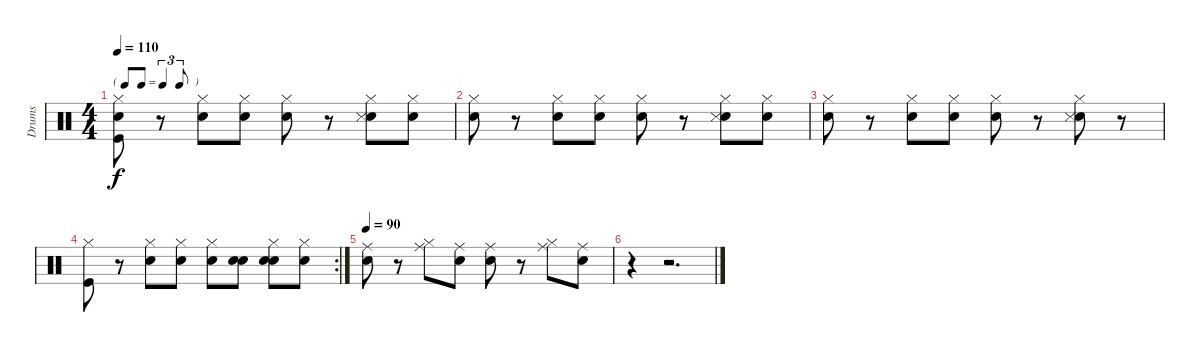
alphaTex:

\track ("Drums " "Drums ") {instrument percussion}
\staff {score}
\articulation defaults
\ts (4 4)
\tf triplet8th
\tempo 110
\clef neutral
\ks c
("Snare (hit)" "Kick (hit)" "Hi-Hat (closed)").8{dy f} r.8 ("Snare (hit) 2" "Hi-Hat (closed)").8 ("Snare (hit)" "Hi-Hat (closed)").8 ("Snare (hit)" "Hi-Hat (closed)").8 r.8 ("Snare (hit) 2" "Hi-Hat (closed)" "Snare (side stick) 3").8 ("Snare (hit)" "Hi-Hat (closed)").8 |
("Snare (hit)" "Hi-Hat (closed)").8 r.8 ("Snare (hit) 2" "Hi-Hat (closed)").8 ("Snare (hit)" "Hi-Hat (closed)").8 ("Snare (hit)" "Hi-Hat (closed)").8 r.8 ("Snare (hit) 2" "Hi-Hat (closed)" "Snare (side stick) 3").8 ("Snare (hit)" "Hi-Hat (closed)").8 |
("Snare (hit)" "Hi-Hat (closed)").8 r.8 ("Snare (hit) 2" "Hi-Hat (closed)").8 ("Snare (hit)" "Hi-Hat (closed)").8 ("Snare (hit)" "Hi-Hat (closed)").8 r.8 ("Snare (hit) 2" "Hi-Hat (closed)" "Snare (side stick) 3").8 r.8 |
\rc 2
("Kick (hit)" "Hi-Hat (closed)").8 r.8 ("Snare (hit) 2" "Hi-Hat (closed)").8 ("Snare (hit)" "Hi-Hat (closed)").8 ("Snare (hit)" "Hi-Hat (closed)").8 ("Snare (hit)" "Snare (hit) 2").8 ("Snare (hit)" "Snare (hit) 2" "Hi-Hat (closed)").8 ("Snare (hit)" "Hi-Hat (closed)").8 |
\tempo 90
("Snare (hit)" "Ride (middle)").8 r.8 ("Hi-Hat (closed)" "Ride (middle)").8 ("Snare (hit)" "Ride (middle)").8 ("Snare (hit)" "Ride (middle)").8 r.8 ("Hi-Hat (closed)" "Ride (middle)").8 ("Snare (hit)" "Ride (middle)").8 |
r.4 r.2{d}
